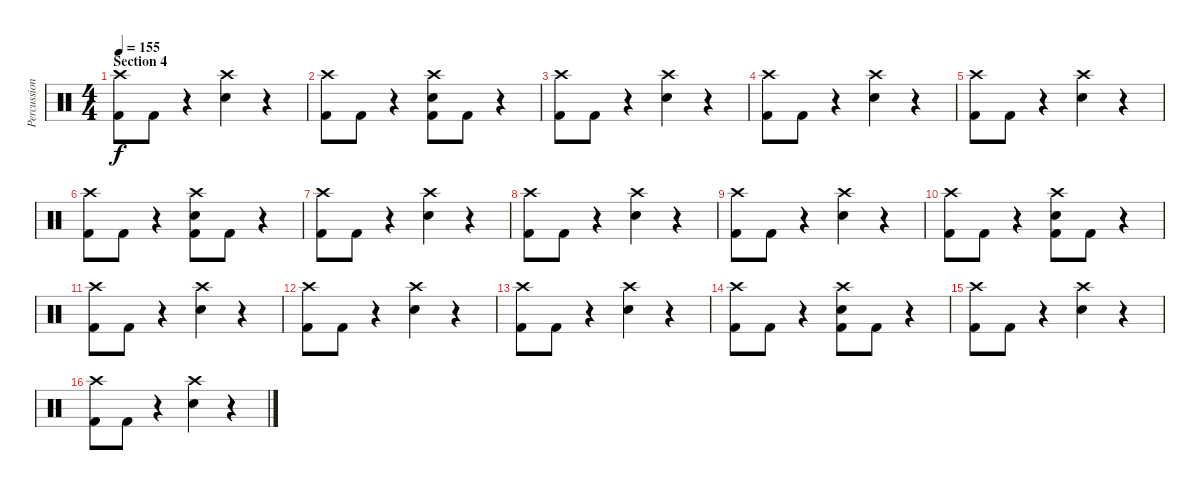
\track ("Percussion" "Percussion") {instrument percussion}
\staff {score}
\articulation defaults
\ts (4 4)
\section ("" "Section 4")
\tempo 155
\clef neutral
\ks c
("Crash high (hit)" "Kick (hit) 2").8{dy f} "Kick (hit) 2".8 r.4 ("Crash high (hit)" "Electric Snare (hit)").4 r.4 |
("Crash high (hit)" "Kick (hit) 2").8 "Kick (hit) 2".8 r.4 ("Crash high (hit)" "Electric Snare (hit)" "Kick (hit) 2").8 "Kick (hit) 2".8 r.4 |
("Crash high (hit)" "Kick (hit) 2").8 "Kick (hit) 2".8 r.4 ("Crash high (hit)" "Electric Snare (hit)").4 r.4 |
("Crash high (hit)" "Kick (hit) 2").8 "Kick (hit) 2".8 r.4 ("Crash high (hit)" "Electric Snare (hit)").4 r.4 |
("Crash high (hit)" "Kick (hit) 2").8 "Kick (hit) 2".8 r.4 ("Crash high (hit)" "Electric Snare (hit)").4 r.4 |
("Crash high (hit)" "Kick (hit) 2").8 "Kick (hit) 2".8 r.4 ("Crash high (hit)" "Electric Snare (hit)" "Kick (hit) 2").8 "Kick (hit) 2".8 r.4 |
("Crash high (hit)" "Kick (hit) 2").8 "Kick (hit) 2".8 r.4 ("Crash high (hit)" "Electric Snare (hit)").4 r.4 |
("Crash high (hit)" "Kick (hit) 2").8 "Kick (hit) 2".8 r.4 ("Crash high (hit)" "Electric Snare (hit)").4 r.4 |
("Crash high (hit)" "Kick (hit) 2").8 "Kick (hit) 2".8 r.4 ("Crash high (hit)" "Electric Snare (hit)").4 r.4 |
("Crash high (hit)" "Kick (hit) 2").8 "Kick (hit) 2".8 r.4 ("Crash high (hit)" "Electric Snare (hit)" "Kick (hit) 2").8 "Kick (hit) 2".8 r.4 |
("Crash high (hit)" "Kick (hit) 2").8 "Kick (hit) 2".8 r.4 ("Crash high (hit)" "Electric Snare (hit)").4 r.4 |
("Crash high (hit)" "Kick (hit) 2").8 "Kick (hit) 2".8 r.4 ("Crash high (hit)" "Electric Snare (hit)").4 r.4 |
("Crash high (hit)" "Kick (hit) 2").8 "Kick (hit) 2".8 r.4 ("Crash high (hit)" "Electric Snare (hit)").4 r.4 |
("Crash high (hit)" "Kick (hit) 2").8 "Kick (hit) 2".8 r.4 ("Crash high (hit)" "Electric Snare (hit)" "Kick (hit) 2").8 "Kick (hit) 2".8 r.4 |
("Crash high (hit)" "Kick (hit) 2").8 "Kick (hit) 2".8 r.4 ("Crash high (hit)" "Electric Snare (hit)").4 r.4 |
("Crash high (hit)" "Kick (hit) 2").8 "Kick (hit) 2".8 r.4 ("Crash high (hit)" "Electric Snare (hit)").4 r.4
